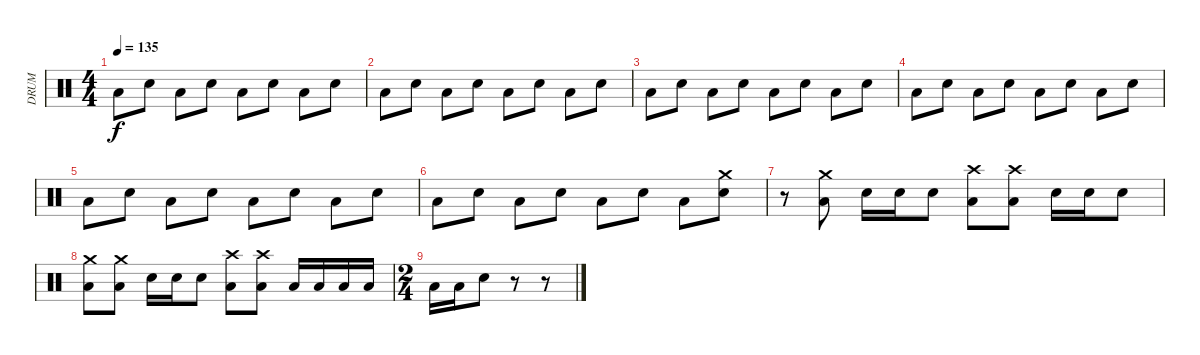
\track ("DRUM" "DRUM") {instrument percussion}
\staff {score}
\articulation defaults
\ts (4 4)
\tempo 135
\clef neutral
\ks c "Low Floor Tom (hit)".8{dy f} "Electric Snare (hit)".8 "Low Floor Tom (hit)".8 "Electric Snare (hit)".8 "Low Floor Tom (hit)".8 "Electric Snare (hit)".8 "Low Floor Tom (hit)".8 "Electric Snare (hit)".8
|
"Low Floor Tom (hit)".8 "Electric Snare (hit)".8 "Low Floor Tom (hit)".8 "Electric Snare (hit)".8 "Low Floor Tom (hit)".8 "Electric Snare (hit)".8 "Low Floor Tom (hit)".8 "Electric Snare (hit)".8 |
"Low Floor Tom (hit)".8 "Electric Snare (hit)".8 "Low Floor Tom (hit)".8 "Electric Snare (hit)".8 "Low Floor Tom (hit)".8 "Electric Snare (hit)".8 "Low Floor Tom (hit)".8 "Electric Snare (hit)".8 |
"Low Floor Tom (hit)".8 "Electric Snare (hit)".8 "Low Floor Tom (hit)".8 "Electric Snare (hit)".8 "Low Floor Tom (hit)".8 "Electric Snare (hit)".8 "Low Floor Tom (hit)".8 "Electric Snare (hit)".8 |
"Low Floor Tom (hit)".8 "Electric Snare (hit)".8 "Low Floor Tom (hit)".8 "Electric Snare (hit)".8 "Low Floor Tom (hit)".8 "Electric Snare (hit)".8 "Low Floor Tom (hit)".8 "Electric Snare (hit)".8 |
"Low Floor Tom (hit)".8 "Electric Snare (hit)".8 "Low Floor Tom (hit)".8 "Electric Snare (hit)".8 "Low Floor Tom (hit)".8 "Electric Snare (hit)".8 "Low Floor Tom (hit)".8 ("Electric Snare (hit)" "Crash medium (hit)").8 |
r.8 ("Low Floor Tom (hit)" "Crash medium (hit)").8 "Electric Snare (hit)".16 "Electric Snare (hit)".16 "Electric Snare (hit)".8 ("Low Floor Tom (hit)" "Crash high (hit)").8 ("Low Floor Tom (hit)" "Crash high (hit)").8 "Electric Snare (hit)".16 "Electric Snare (hit)".16 "Electric Snare (hit)".8 |
("Low Floor Tom (hit)" "Crash medium (hit)").8 ("Low Floor Tom (hit)" "Crash medium (hit)").8 "Electric Snare (hit)".16 "Electric Snare (hit)".16 "Electric Snare (hit)".8 ("Low Floor Tom (hit)" "Crash high (hit)").8 ("Low Floor Tom (hit)" "Crash high (hit)").8 "Low Floor Tom (hit)".16 "Low Floor Tom (hit)".16 "Low Floor Tom (hit)".16 "Low Floor Tom (hit)".16 |
\ts (2 4)
"Low Floor Tom (hit)".16 "Low Floor Tom (hit)".16 "Electric Snare (hit)".8 r.8 r.8
